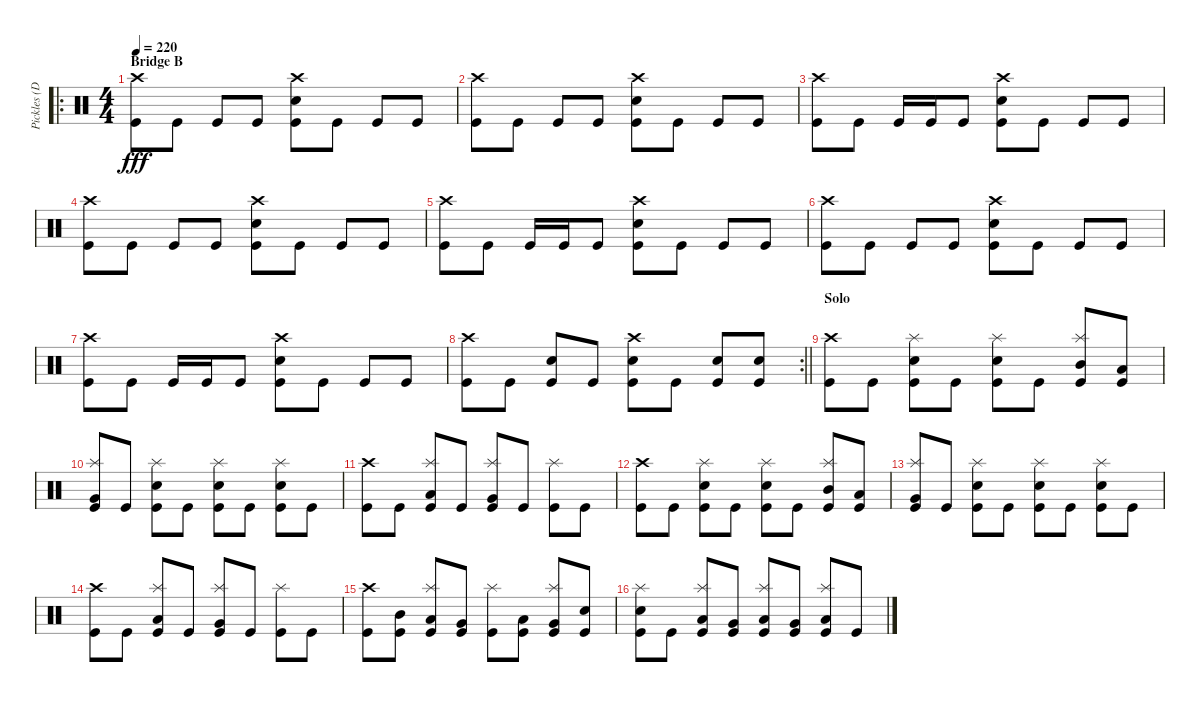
\track ("Pickles (Drums)" "Pickles (D") {instrument percussion}
\staff {score}
\articulation defaults
\ro
\ts (4 4)
\section ("" "Bridge B")
\tempo 220
\clef neutral
\ks c
("Crash high (hit)" "Kick (hit)").8{dy fff} "Kick (hit)".8 "Kick (hit)".8 "Kick (hit)".8 ("Crash high (hit)" "Electric Snare (hit)" "Kick (hit)").8 "Kick (hit)".8 "Kick (hit)".8 "Kick (hit)".8 |
("Crash high (hit)" "Kick (hit)").8 "Kick (hit)".8 "Kick (hit)".8 "Kick (hit)".8 ("Crash high (hit)" "Electric Snare (hit)" "Kick (hit)").8 "Kick (hit)".8 "Kick (hit)".8 "Kick (hit)".8 |
("Crash high (hit)" "Kick (hit)").8 "Kick (hit)".8 "Kick (hit)".16 "Kick (hit)".16 "Kick (hit)".8 ("Crash high (hit)" "Electric Snare (hit)" "Kick (hit)").8 "Kick (hit)".8 "Kick (hit)".8 "Kick (hit)".8 |
("Crash high (hit)" "Kick (hit)").8 "Kick (hit)".8 "Kick (hit)".8 "Kick (hit)".8 ("Crash high (hit)" "Electric Snare (hit)" "Kick (hit)").8 "Kick (hit)".8 "Kick (hit)".8 "Kick (hit)".8 |
("Crash high (hit)" "Kick (hit)").8 "Kick (hit)".8 "Kick (hit)".16 "Kick (hit)".16 "Kick (hit)".8 ("Crash high (hit)" "Electric Snare (hit)" "Kick (hit)").8 "Kick (hit)".8 "Kick (hit)".8 "Kick (hit)".8 |
("Crash high (hit)" "Kick (hit)").8 "Kick (hit)".8 "Kick (hit)".8 "Kick (hit)".8 ("Crash high (hit)" "Electric Snare (hit)" "Kick (hit)").8 "Kick (hit)".8 "Kick (hit)".8 "Kick (hit)".8 |
("Crash high (hit)" "Kick (hit)").8 "Kick (hit)".8 "Kick (hit)".16 "Kick (hit)".16 "Kick (hit)".8 ("Crash high (hit)" "Electric Snare (hit)" "Kick (hit)").8 "Kick (hit)".8 "Kick (hit)".8 "Kick (hit)".8 |
\rc 2
\barLineRight lightlight
("Crash high (hit)" "Kick (hit)").8 "Kick (hit)".8 ("Electric Snare (hit)" "Kick (hit)").8 "Kick (hit)".8 ("Crash high (hit)" "Electric Snare (hit)" "Kick (hit)").8 "Kick (hit)".8 ("Electric Snare (hit)" "Kick (hit)").8 ("Electric Snare (hit)" "Kick (hit)").8 |
\section ("" "Solo")
("Crash high (hit)" "Kick (hit)").8 "Kick (hit)".8 ("Splash (hit)" "Electric Snare (hit)" "Kick (hit)").8 "Kick (hit)".8 ("Splash (hit)" "Electric Snare (hit)" "Kick (hit)").8 "Kick (hit)".8 ("Splash (hit)" "Mid Tom (hit)" "Kick (hit)").8 ("Low Tom (hit)" "Kick (hit)").8 |
("Splash (hit)" "Very Low Tom (hit)" "Kick (hit)").8 "Kick (hit)".8 ("Splash (hit)" "Electric Snare (hit)" "Kick (hit)").8 "Kick (hit)".8 ("Splash (hit)" "Electric Snare (hit)" "Kick (hit)").8 "Kick (hit)".8 ("Splash (hit)" "Electric Snare (hit)" "Kick (hit)").8 "Kick (hit)".8 |
("Crash high (hit)" "Kick (hit)").8 "Kick (hit)".8 ("Splash (hit)" "Low Tom (hit)" "Kick (hit)").8 "Kick (hit)".8 ("Splash (hit)" "Very Low Tom (hit)" "Kick (hit)").8 "Kick (hit)".8 ("Splash (hit)" "Kick (hit)").8 "Kick (hit)".8 |
("Crash high (hit)" "Kick (hit)").8 "Kick (hit)".8 ("Splash (hit)" "Electric Snare (hit)" "Kick (hit)").8 "Kick (hit)".8 ("Splash (hit)" "Electric Snare (hit)" "Kick (hit)").8 "Kick (hit)".8 ("Splash (hit)" "Mid Tom (hit)" "Kick (hit)").8 ("Low Tom (hit)" "Kick (hit)").8 |
("Splash (hit)" "Very Low Tom (hit)" "Kick (hit)").8 "Kick (hit)".8 ("Splash (hit)" "Electric Snare (hit)" "Kick (hit)").8 "Kick (hit)".8 ("Splash (hit)" "Electric Snare (hit)" "Kick (hit)").8 "Kick (hit)".8 ("Splash (hit)" "Electric Snare (hit)" "Kick (hit)").8 "Kick (hit)".8 |
("Crash high (hit)" "Kick (hit)").8 "Kick (hit)".8 ("Splash (hit)" "Low Tom (hit)" "Kick (hit)").8 "Kick (hit)".8 ("Splash (hit)" "Very Low Tom (hit)" "Kick (hit)").8 "Kick (hit)".8 ("Splash (hit)" "Kick (hit)").8 "Kick (hit)".8 |
("Crash high (hit)" "Kick (hit)").8 ("Mid Tom (hit)" "Kick (hit)").8 ("Splash (hit)" "Low Tom (hit)" "Kick (hit)").8 ("Very Low Tom (hit)" "Kick (hit)").8 ("Splash (hit)" "Kick (hit)").8 ("Low Tom (hit)" "Kick (hit)").8 ("Splash (hit)" "Very Low Tom (hit)" "Kick (hit)").8 ("Electric Snare (hit)" "Kick (hit)").8 |
("Splash (hit)" "Electric Snare (hit)" "Kick (hit)").8 "Kick (hit)".8 ("Splash (hit)" "Low Tom (hit)" "Kick (hit)").8 ("Very Low Tom (hit)" "Kick (hit)").8 ("Splash (hit)" "Low Floor Tom (hit)" "Kick (hit)").8 ("Very Low Tom (hit)" "Kick (hit)").8 ("Splash (hit)" "Low Floor Tom (hit)" "Kick (hit)").8 "Kick (hit)".8
